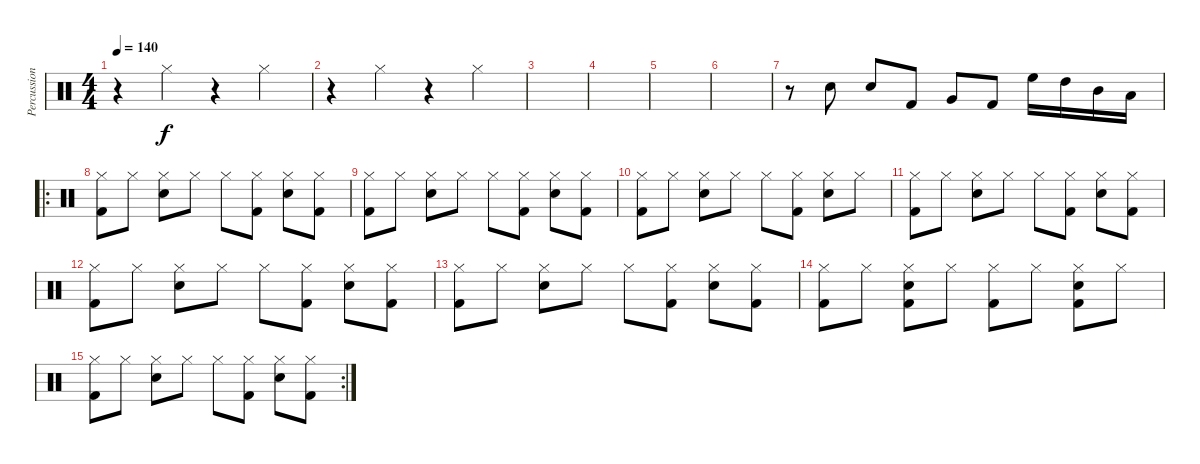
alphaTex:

\track ("Percussions" "Percussion") {instrument percussion}
\staff {score}
\articulation defaults
\ts (4 4)
\tempo 140
\clef neutral
\ks c
r.4{dy f} "Hi-Hat (closed)".4 r.4 "Hi-Hat (closed)".4 |
r.4 "Hi-Hat (closed)".4 r.4 "Hi-Hat (closed)".4 |
|
|
|
|
r.8 "Electric Snare (hit)".8 "Electric Snare (hit)".8 "Kick (hit) 2".8 "Very Low Tom (hit)".8 "Kick (hit) 2".8 "High Floor Tom (hit)".16 "High Tom (hit)".16 "Mid Tom (hit)".16 "Low Tom (hit)".16 |
\ro
("Hi-Hat (closed)" "Kick (hit) 2").8 "Hi-Hat (closed)".8 ("Hi-Hat (closed)" "Electric Snare (hit)").8 "Hi-Hat (closed)".8 "Hi-Hat (closed)".8 ("Hi-Hat (closed)" "Kick (hit) 2").8 ("Hi-Hat (closed)" "Electric Snare (hit)").8 ("Hi-Hat (closed)" "Kick (hit) 2").8 |
("Hi-Hat (closed)" "Kick (hit) 2").8 "Hi-Hat (closed)".8 ("Hi-Hat (closed)" "Electric Snare (hit)").8 "Hi-Hat (closed)".8 "Hi-Hat (closed)".8 ("Hi-Hat (closed)" "Kick (hit) 2").8 ("Hi-Hat (closed)" "Electric Snare (hit)").8 ("Hi-Hat (closed)" "Kick (hit) 2").8 |
("Hi-Hat (closed)" "Kick (hit) 2").8 "Hi-Hat (closed)".8 ("Hi-Hat (closed)" "Electric Snare (hit)").8 "Hi-Hat (closed)".8 "Hi-Hat (closed)".8 ("Hi-Hat (closed)" "Kick (hit) 2").8 ("Hi-Hat (closed)" "Electric Snare (hit)").8 "Hi-Hat (closed)".8 |
("Hi-Hat (closed)" "Kick (hit) 2").8 "Hi-Hat (closed)".8 ("Hi-Hat (closed)" "Electric Snare (hit)").8 "Hi-Hat (closed)".8 "Hi-Hat (closed)".8 ("Hi-Hat (closed)" "Kick (hit) 2").8 ("Hi-Hat (closed)" "Electric Snare (hit)").8 ("Hi-Hat (closed)" "Kick (hit) 2").8 |
("Hi-Hat (closed)" "Kick (hit) 2").8 "Hi-Hat (closed)".8 ("Hi-Hat (closed)" "Electric Snare (hit)").8 "Hi-Hat (closed)".8 "Hi-Hat (closed)".8 ("Hi-Hat (closed)" "Kick (hit) 2").8 ("Hi-Hat (closed)" "Electric Snare (hit)").8 ("Hi-Hat (closed)" "Kick (hit) 2").8 |
("Hi-Hat (closed)" "Kick (hit) 2").8 "Hi-Hat (closed)".8 ("Hi-Hat (closed)" "Electric Snare (hit)").8 "Hi-Hat (closed)".8 "Hi-Hat (closed)".8 ("Hi-Hat (closed)" "Kick (hit) 2").8 ("Hi-Hat (closed)" "Electric Snare (hit)").8 ("Hi-Hat (closed)" "Kick (hit) 2").8 |
("Hi-Hat (closed)" "Kick (hit) 2").8 "Hi-Hat (closed)".8 ("Hi-Hat (closed)" "Electric Snare (hit)" "Kick (hit) 2").8 "Hi-Hat (closed)".8 ("Hi-Hat (closed)" "Kick (hit) 2").8 "Hi-Hat (closed)".8 ("Hi-Hat (closed)" "Electric Snare (hit)" "Kick (hit) 2").8 "Hi-Hat (closed)".8 |
\rc 2
("Hi-Hat (closed)" "Kick (hit) 2").8 "Hi-Hat (closed)".8 ("Hi-Hat (closed)" "Electric Snare (hit)").8 "Hi-Hat (closed)".8 "Hi-Hat (closed)".8 ("Hi-Hat (closed)" "Kick (hit) 2").8 ("Hi-Hat (closed)" "Electric Snare (hit)").8 ("Hi-Hat (closed)" "Kick (hit) 2").8
